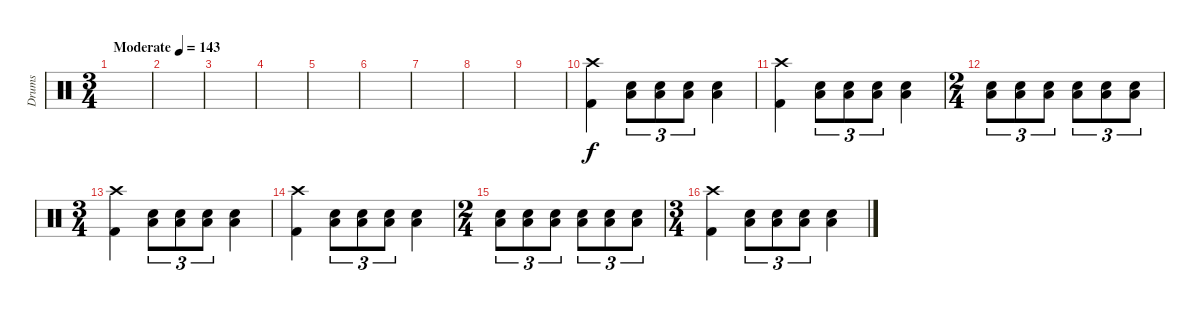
\track ("Drums" "Drums") {instrument percussion}
\staff {score}
\articulation defaults
\ts (3 4)
\tempo (143 "Moderate")
\clef neutral
\ks c
|
|
|
|
|
|
|
|
|
("Crash high (hit)" "Kick (hit) 2").4 ("Electric Snare (hit)" "Low Floor Tom (hit)").8{tu (3 2)} ("Electric Snare (hit)" "Low Floor Tom (hit)").8{tu (3 2)} ("Electric Snare (hit)" "Low Floor Tom (hit)").8{tu (3 2)} ("Electric Snare (hit)" "Low Floor Tom (hit)").4 |
("Crash high (hit)" "Kick (hit) 2").4 ("Electric Snare (hit)" "Low Floor Tom (hit)").8{tu (3 2)} ("Electric Snare (hit)" "Low Floor Tom (hit)").8{tu (3 2)} ("Electric Snare (hit)" "Low Floor Tom (hit)").8{tu (3 2)} ("Electric Snare (hit)" "Low Floor Tom (hit)").4 |
\ts (2 4)
("Electric Snare (hit)" "Low Floor Tom (hit)").8{tu (3 2)} ("Electric Snare (hit)" "Low Floor Tom (hit)").8{tu (3 2)} ("Electric Snare (hit)" "Low Floor Tom (hit)").8{tu (3 2)} ("Electric Snare (hit)" "Low Floor Tom (hit)").8{tu (3 2)} ("Electric Snare (hit)" "Low Floor Tom (hit)").8{tu (3 2)} ("Electric Snare (hit)" "Low Floor Tom (hit)").8{tu (3 2)} |
\ts (3 4)
("Crash high (hit)" "Kick (hit) 2").4 ("Electric Snare (hit)" "Low Floor Tom (hit)").8{tu (3 2)} ("Electric Snare (hit)" "Low Floor Tom (hit)").8{tu (3 2)} ("Electric Snare (hit)" "Low Floor Tom (hit)").8{tu (3 2)} ("Electric Snare (hit)" "Low Floor Tom (hit)").4 |
("Crash high (hit)" "Kick (hit) 2").4 ("Electric Snare (hit)" "Low Floor Tom (hit)").8{tu (3 2)} ("Electric Snare (hit)" "Low Floor Tom (hit)").8{tu (3 2)} ("Electric Snare (hit)" "Low Floor Tom (hit)").8{tu (3 2)} ("Electric Snare (hit)" "Low Floor Tom (hit)").4 |
\ts (2 4)
("Electric Snare (hit)" "Low Floor Tom (hit)").8{tu (3 2)} ("Electric Snare (hit)" "Low Floor Tom (hit)").8{tu (3 2)} ("Electric Snare (hit)" "Low Floor Tom (hit)").8{tu (3 2)} ("Electric Snare (hit)" "Low Floor Tom (hit)").8{tu (3 2)} ("Electric Snare (hit)" "Low Floor Tom (hit)").8{tu (3 2)} ("Electric Snare (hit)" "Low Floor Tom (hit)").8{tu (3 2)} |
\ts (3 4)
("Crash high (hit)" "Kick (hit) 2").4 ("Electric Snare (hit)" "Low Floor Tom (hit)").8{tu (3 2)} ("Electric Snare (hit)" "Low Floor Tom (hit)").8{tu (3 2)} ("Electric Snare (hit)" "Low Floor Tom (hit)").8{tu (3 2)} ("Electric Snare (hit)" "Low Floor Tom (hit)").4
